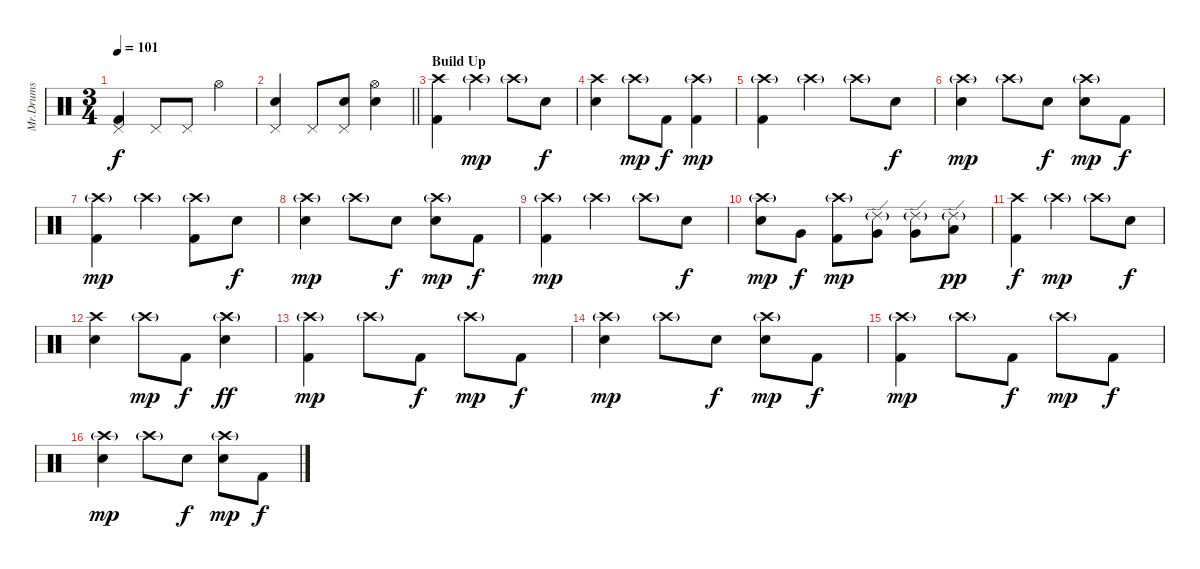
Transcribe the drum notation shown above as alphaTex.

\track ("Mr.Drums" "Mr.Drums") {instrument percussion}
\staff {score}
\articulation defaults
\ts (3 4)
\tempo 101
\clef neutral
\ks c
("Pedal Hi-Hat (hit)" "Kick (hit) 2").4{dy f} "Pedal Hi-Hat (hit)".8 "Pedal Hi-Hat (hit)".8 "Hi-Hat (open)".4 |
\barLineRight lightlight
("Pedal Hi-Hat (hit)" "Electric Snare (hit)").4 "Pedal Hi-Hat (hit)".8 ("Pedal Hi-Hat (hit)" "Electric Snare (hit)").8 ("Hi-Hat (open)" "Electric Snare (hit)").4 |
\section ("" "Build Up")
("Crash high (hit)" "Kick (hit) 2").4 "Crash high (hit)"{g}.4{dy mp} "Crash high (hit)"{g}.8 "Electric Snare (hit)".8{dy f} |
("Crash high (hit)" "Electric Snare (hit)").4 "Crash high (hit)"{g}.8{dy mp} "Kick (hit) 2".8{dy f} ("Crash high (hit)"{g} "Kick (hit) 2").4{dy mp} |
("Crash high (hit)"{g} "Kick (hit) 2").4 "Crash high (hit)"{g}.4 "Crash high (hit)"{g}.8 "Electric Snare (hit)".8{dy f} |
("Crash high (hit)"{g} "Electric Snare (hit)").4{dy mp} "Crash high (hit)"{g}.8 "Electric Snare (hit)".8{dy f} ("Crash high (hit)"{g} "Electric Snare (hit)").8{dy mp} "Kick (hit) 2".8{dy f} |
("Crash high (hit)"{g} "Kick (hit) 2").4{dy mp} "Crash high (hit)"{g}.4 ("Crash high (hit)"{g} "Kick (hit) 2").8 "Electric Snare (hit)".8{dy f} |
("Crash high (hit)"{g} "Electric Snare (hit)").4{dy mp} "Crash high (hit)"{g}.8 "Electric Snare (hit)".8{dy f} ("Crash high (hit)"{g} "Electric Snare (hit)").8{dy mp} "Kick (hit) 2".8{dy f} |
("Crash high (hit)"{g} "Kick (hit) 2").4{dy mp} "Crash high (hit)"{g}.4 "Crash high (hit)"{g}.8 "Electric Snare (hit)".8{dy f} |
("Crash high (hit)"{g} "Electric Snare (hit)").8{dy mp} "Very Low Tom (hit)".8{dy f} ("Crash high (hit)"{g} "Kick (hit) 2").8{dy mp} ("Ride (edge) 2"{g} "Very Low Tom (hit)").8 ("Ride (edge) 2"{g} "Very Low Tom (hit)").8 ("Ride (edge) 2"{g} "Low Floor Tom (hit)").8{dy pp} |
("Crash high (hit)" "Kick (hit) 2").4{dy f} "Crash high (hit)"{g}.4{dy mp} "Crash high (hit)"{g}.8 "Electric Snare (hit)".8{dy f} |
("Crash high (hit)" "Electric Snare (hit)").4 "Crash high (hit)"{g}.8{dy mp} "Kick (hit) 2".8{dy f} ("Crash high (hit)"{g} "Electric Snare (hit)").4{dy ff} |
("Crash high (hit)"{g} "Kick (hit) 2").4{dy mp} "Crash high (hit)"{g}.8 "Kick (hit) 2".8{dy f} "Crash high (hit)"{g}.8{dy mp} "Kick (hit) 2".8{dy f} |
("Crash high (hit)"{g} "Electric Snare (hit)").4{dy mp} "Crash high (hit)"{g}.8 "Electric Snare (hit)".8{dy f} ("Crash high (hit)"{g} "Electric Snare (hit)").8{dy mp} "Kick (hit) 2".8{dy f} |
("Crash high (hit)"{g} "Kick (hit) 2").4{dy mp} "Crash high (hit)"{g}.8 "Kick (hit) 2".8{dy f} "Crash high (hit)"{g}.8{dy mp} "Kick (hit) 2".8{dy f} |
("Crash high (hit)"{g} "Electric Snare (hit)").4{dy mp} "Crash high (hit)"{g}.8 "Electric Snare (hit)".8{dy f} ("Crash high (hit)"{g} "Electric Snare (hit)").8{dy mp} "Kick (hit) 2".8{dy f}
